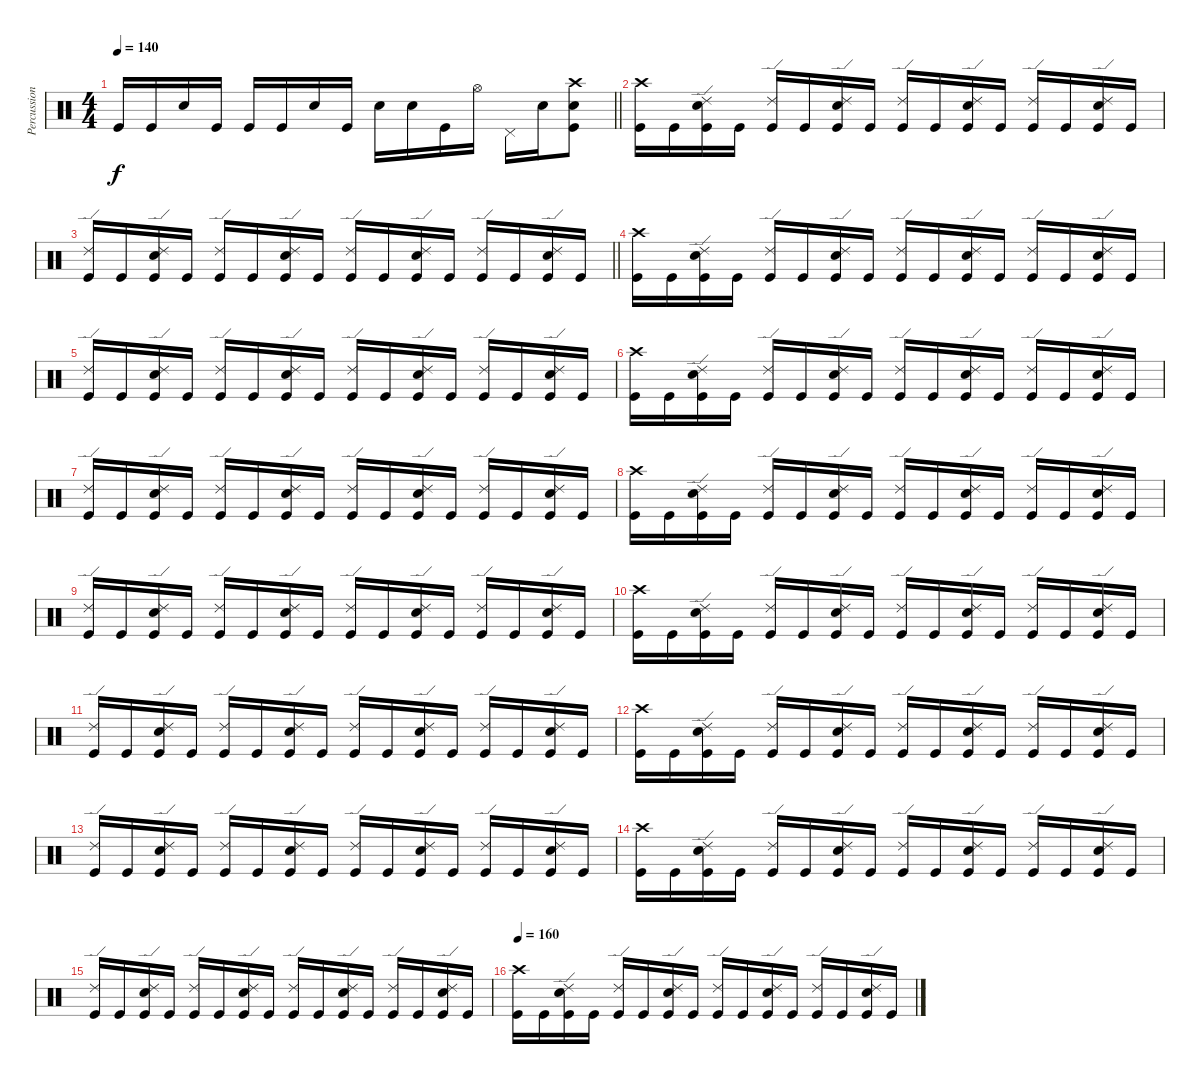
\track ("Percussion(Satish)" "Percussion") {instrument percussion}
\staff {score}
\articulation defaults
\ts (4 4)
\tempo 140
\clef neutral
\barLineRight lightlight
\ks c "Kick (hit)".16{dy f} "Kick (hit)".16 "Electric Snare (hit)".16 "Kick (hit)".16 "Kick (hit)".16 "Kick (hit)".16 "Electric Snare (hit)".16 "Kick (hit)".16 "Electric Snare (hit)".16 "Electric Snare (hit)".16 "Kick (hit)".16 "Hi-Hat (open)".16 "Pedal Hi-Hat (hit)".16 "Electric Snare (hit)".16
("Crash high (hit)" "Electric Snare (hit)" "Kick (hit)").8 |
("Crash high (hit)" "Kick (hit)").16 "Kick (hit)".16 ("Ride (edge) 2" "Electric Snare (hit)" "Kick (hit)").16 "Kick (hit)".16 ("Ride (edge) 2" "Kick (hit)").16 "Kick (hit)".16 ("Ride (edge) 2" "Electric Snare (hit)" "Kick (hit)").16 "Kick (hit)".16 ("Ride (edge) 2" "Kick (hit)").16 "Kick (hit)".16 ("Ride (edge) 2" "Electric Snare (hit)" "Kick (hit)").16 "Kick (hit)".16 ("Ride (edge) 2" "Kick (hit)").16 "Kick (hit)".16 ("Ride (edge) 2" "Electric Snare (hit)" "Kick (hit)").16 "Kick (hit)".16 |
\barLineRight lightlight
("Ride (edge) 2" "Kick (hit)").16 "Kick (hit)".16 ("Ride (edge) 2" "Electric Snare (hit)" "Kick (hit)").16 "Kick (hit)".16 ("Ride (edge) 2" "Kick (hit)").16 "Kick (hit)".16 ("Ride (edge) 2" "Electric Snare (hit)" "Kick (hit)").16 "Kick (hit)".16 ("Ride (edge) 2" "Kick (hit)").16 "Kick (hit)".16 ("Ride (edge) 2" "Electric Snare (hit)" "Kick (hit)").16 "Kick (hit)".16 ("Ride (edge) 2" "Kick (hit)").16 "Kick (hit)".16 ("Ride (edge) 2" "Electric Snare (hit)" "Kick (hit)").16 "Kick (hit)".16 |
("Crash high (hit)" "Kick (hit)").16 "Kick (hit)".16 ("Ride (edge) 2" "Electric Snare (hit)" "Kick (hit)").16 "Kick (hit)".16 ("Ride (edge) 2" "Kick (hit)").16 "Kick (hit)".16 ("Ride (edge) 2" "Electric Snare (hit)" "Kick (hit)").16 "Kick (hit)".16 ("Ride (edge) 2" "Kick (hit)").16 "Kick (hit)".16 ("Ride (edge) 2" "Electric Snare (hit)" "Kick (hit)").16 "Kick (hit)".16 ("Ride (edge) 2" "Kick (hit)").16 "Kick (hit)".16 ("Ride (edge) 2" "Electric Snare (hit)" "Kick (hit)").16 "Kick (hit)".16 |
("Ride (edge) 2" "Kick (hit)").16 "Kick (hit)".16 ("Ride (edge) 2" "Electric Snare (hit)" "Kick (hit)").16 "Kick (hit)".16 ("Ride (edge) 2" "Kick (hit)").16 "Kick (hit)".16 ("Ride (edge) 2" "Electric Snare (hit)" "Kick (hit)").16 "Kick (hit)".16 ("Ride (edge) 2" "Kick (hit)").16 "Kick (hit)".16 ("Ride (edge) 2" "Electric Snare (hit)" "Kick (hit)").16 "Kick (hit)".16 ("Ride (edge) 2" "Kick (hit)").16 "Kick (hit)".16 ("Ride (edge) 2" "Electric Snare (hit)" "Kick (hit)").16 "Kick (hit)".16 |
("Crash high (hit)" "Kick (hit)").16 "Kick (hit)".16 ("Ride (edge) 2" "Electric Snare (hit)" "Kick (hit)").16 "Kick (hit)".16 ("Ride (edge) 2" "Kick (hit)").16 "Kick (hit)".16 ("Ride (edge) 2" "Electric Snare (hit)" "Kick (hit)").16 "Kick (hit)".16 ("Ride (edge) 2" "Kick (hit)").16 "Kick (hit)".16 ("Ride (edge) 2" "Electric Snare (hit)" "Kick (hit)").16 "Kick (hit)".16 ("Ride (edge) 2" "Kick (hit)").16 "Kick (hit)".16 ("Ride (edge) 2" "Electric Snare (hit)" "Kick (hit)").16 "Kick (hit)".16 |
("Ride (edge) 2" "Kick (hit)").16 "Kick (hit)".16 ("Ride (edge) 2" "Electric Snare (hit)" "Kick (hit)").16 "Kick (hit)".16 ("Ride (edge) 2" "Kick (hit)").16 "Kick (hit)".16 ("Ride (edge) 2" "Electric Snare (hit)" "Kick (hit)").16 "Kick (hit)".16 ("Ride (edge) 2" "Kick (hit)").16 "Kick (hit)".16 ("Ride (edge) 2" "Electric Snare (hit)" "Kick (hit)").16 "Kick (hit)".16 ("Ride (edge) 2" "Kick (hit)").16 "Kick (hit)".16 ("Ride (edge) 2" "Electric Snare (hit)" "Kick (hit)").16 "Kick (hit)".16 |
("Crash high (hit)" "Kick (hit)").16 "Kick (hit)".16 ("Ride (edge) 2" "Electric Snare (hit)" "Kick (hit)").16 "Kick (hit)".16 ("Ride (edge) 2" "Kick (hit)").16 "Kick (hit)".16 ("Ride (edge) 2" "Electric Snare (hit)" "Kick (hit)").16 "Kick (hit)".16 ("Ride (edge) 2" "Kick (hit)").16 "Kick (hit)".16 ("Ride (edge) 2" "Electric Snare (hit)" "Kick (hit)").16 "Kick (hit)".16 ("Ride (edge) 2" "Kick (hit)").16 "Kick (hit)".16 ("Ride (edge) 2" "Electric Snare (hit)" "Kick (hit)").16 "Kick (hit)".16 |
("Ride (edge) 2" "Kick (hit)").16 "Kick (hit)".16 ("Ride (edge) 2" "Electric Snare (hit)" "Kick (hit)").16 "Kick (hit)".16 ("Ride (edge) 2" "Kick (hit)").16 "Kick (hit)".16 ("Ride (edge) 2" "Electric Snare (hit)" "Kick (hit)").16 "Kick (hit)".16 ("Ride (edge) 2" "Kick (hit)").16 "Kick (hit)".16 ("Ride (edge) 2" "Electric Snare (hit)" "Kick (hit)").16 "Kick (hit)".16 ("Ride (edge) 2" "Kick (hit)").16 "Kick (hit)".16 ("Ride (edge) 2" "Electric Snare (hit)" "Kick (hit)").16 "Kick (hit)".16 |
("Crash high (hit)" "Kick (hit)").16 "Kick (hit)".16 ("Ride (edge) 2" "Electric Snare (hit)" "Kick (hit)").16 "Kick (hit)".16 ("Ride (edge) 2" "Kick (hit)").16 "Kick (hit)".16 ("Ride (edge) 2" "Electric Snare (hit)" "Kick (hit)").16 "Kick (hit)".16 ("Ride (edge) 2" "Kick (hit)").16 "Kick (hit)".16 ("Ride (edge) 2" "Electric Snare (hit)" "Kick (hit)").16 "Kick (hit)".16 ("Ride (edge) 2" "Kick (hit)").16 "Kick (hit)".16 ("Ride (edge) 2" "Electric Snare (hit)" "Kick (hit)").16 "Kick (hit)".16 |
("Ride (edge) 2" "Kick (hit)").16 "Kick (hit)".16 ("Ride (edge) 2" "Electric Snare (hit)" "Kick (hit)").16 "Kick (hit)".16 ("Ride (edge) 2" "Kick (hit)").16 "Kick (hit)".16 ("Ride (edge) 2" "Electric Snare (hit)" "Kick (hit)").16 "Kick (hit)".16 ("Ride (edge) 2" "Kick (hit)").16 "Kick (hit)".16 ("Ride (edge) 2" "Electric Snare (hit)" "Kick (hit)").16 "Kick (hit)".16 ("Ride (edge) 2" "Kick (hit)").16 "Kick (hit)".16 ("Ride (edge) 2" "Electric Snare (hit)" "Kick (hit)").16 "Kick (hit)".16 |
("Crash high (hit)" "Kick (hit)").16 "Kick (hit)".16 ("Ride (edge) 2" "Electric Snare (hit)" "Kick (hit)").16 "Kick (hit)".16 ("Ride (edge) 2" "Kick (hit)").16 "Kick (hit)".16 ("Ride (edge) 2" "Electric Snare (hit)" "Kick (hit)").16 "Kick (hit)".16 ("Ride (edge) 2" "Kick (hit)").16 "Kick (hit)".16 ("Ride (edge) 2" "Electric Snare (hit)" "Kick (hit)").16 "Kick (hit)".16 ("Ride (edge) 2" "Kick (hit)").16 "Kick (hit)".16 ("Ride (edge) 2" "Electric Snare (hit)" "Kick (hit)").16 "Kick (hit)".16 |
("Ride (edge) 2" "Kick (hit)").16 "Kick (hit)".16 ("Ride (edge) 2" "Electric Snare (hit)" "Kick (hit)").16 "Kick (hit)".16 ("Ride (edge) 2" "Kick (hit)").16 "Kick (hit)".16 ("Ride (edge) 2" "Electric Snare (hit)" "Kick (hit)").16 "Kick (hit)".16 ("Ride (edge) 2" "Kick (hit)").16 "Kick (hit)".16 ("Ride (edge) 2" "Electric Snare (hit)" "Kick (hit)").16 "Kick (hit)".16 ("Ride (edge) 2" "Kick (hit)").16 "Kick (hit)".16 ("Ride (edge) 2" "Electric Snare (hit)" "Kick (hit)").16 "Kick (hit)".16 |
("Crash high (hit)" "Kick (hit)").16 "Kick (hit)".16 ("Ride (edge) 2" "Electric Snare (hit)" "Kick (hit)").16 "Kick (hit)".16 ("Ride (edge) 2" "Kick (hit)").16 "Kick (hit)".16 ("Ride (edge) 2" "Electric Snare (hit)" "Kick (hit)").16 "Kick (hit)".16 ("Ride (edge) 2" "Kick (hit)").16 "Kick (hit)".16 ("Ride (edge) 2" "Electric Snare (hit)" "Kick (hit)").16 "Kick (hit)".16 ("Ride (edge) 2" "Kick (hit)").16 "Kick (hit)".16 ("Ride (edge) 2" "Electric Snare (hit)" "Kick (hit)").16 "Kick (hit)".16 |
("Ride (edge) 2" "Kick (hit)").16 "Kick (hit)".16 ("Ride (edge) 2" "Electric Snare (hit)" "Kick (hit)").16 "Kick (hit)".16 ("Ride (edge) 2" "Kick (hit)").16 "Kick (hit)".16 ("Ride (edge) 2" "Electric Snare (hit)" "Kick (hit)").16 "Kick (hit)".16 ("Ride (edge) 2" "Kick (hit)").16 "Kick (hit)".16 ("Ride (edge) 2" "Electric Snare (hit)" "Kick (hit)").16 "Kick (hit)".16 ("Ride (edge) 2" "Kick (hit)").16 "Kick (hit)".16 ("Ride (edge) 2" "Electric Snare (hit)" "Kick (hit)").16 "Kick (hit)".16 |
\tempo 160
("Crash high (hit)" "Kick (hit)").16 "Kick (hit)".16 ("Ride (edge) 2" "Electric Snare (hit)" "Kick (hit)").16 "Kick (hit)".16 ("Ride (edge) 2" "Kick (hit)").16 "Kick (hit)".16 ("Ride (edge) 2" "Electric Snare (hit)" "Kick (hit)").16 "Kick (hit)".16 ("Ride (edge) 2" "Kick (hit)").16 "Kick (hit)".16 ("Ride (edge) 2" "Electric Snare (hit)" "Kick (hit)").16 "Kick (hit)".16 ("Ride (edge) 2" "Kick (hit)").16 "Kick (hit)".16 ("Ride (edge) 2" "Electric Snare (hit)" "Kick (hit)").16 "Kick (hit)".16
